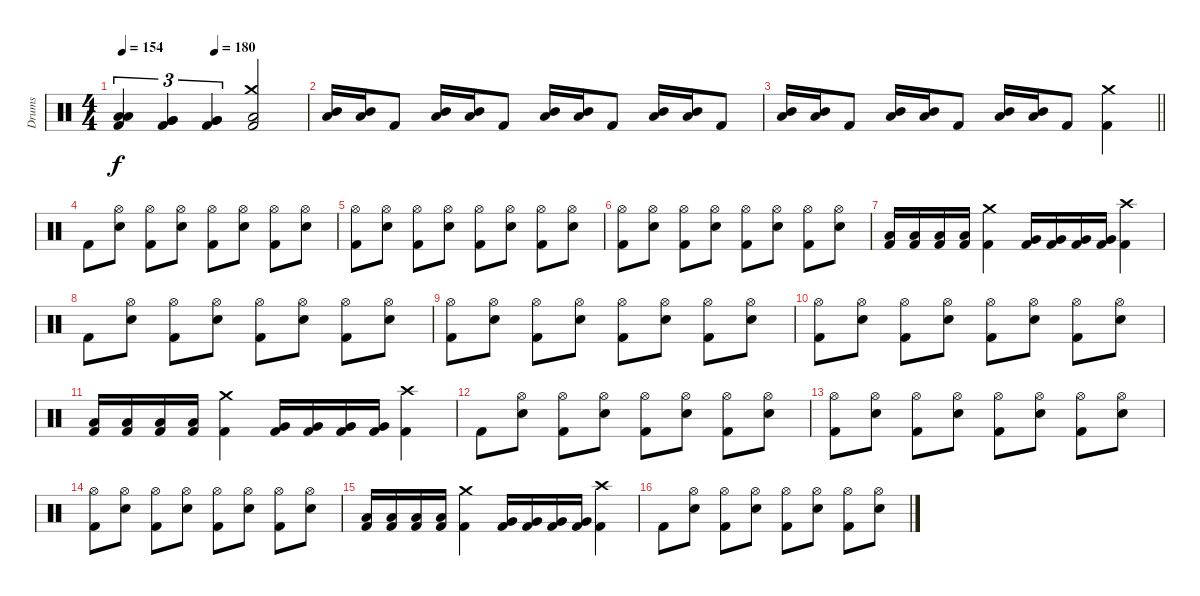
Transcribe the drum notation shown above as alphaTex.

\track ("Drums" "Drums") {instrument percussion}
\staff {score}
\articulation defaults
\ts (4 4)
\tempo 154
\tempo (190 0.5)
\tempo (180 0.5)
\clef neutral
\ks c
("Low Tom (hit)" "Low Tom (hit)" "Kick (hit) 2").4{tu (3 2) dy f} ("Very Low Tom (hit)" "Very Low Tom (hit)" "Kick (hit) 2").4{tu (3 2)} ("Very Low Tom (hit)" "Very Low Tom (hit)" "Kick (hit) 2").4{tu (3 2)} ("Crash medium (hit)" "Low Floor Tom (hit)" "Kick (hit) 2").2 |
("Low Tom (hit)" "Mid Tom (hit)").16 ("Low Tom (hit)" "Mid Tom (hit)").16 "Kick (hit) 2".8 ("Low Tom (hit)" "Mid Tom (hit)").16 ("Low Tom (hit)" "Mid Tom (hit)").16 "Kick (hit) 2".8 ("Low Tom (hit)" "Mid Tom (hit)").16 ("Low Tom (hit)" "Mid Tom (hit)").16 "Kick (hit) 2".8 ("Low Tom (hit)" "Mid Tom (hit)").16 ("Low Tom (hit)" "Mid Tom (hit)").16 "Kick (hit) 2".8 |
\barLineRight lightlight
("Low Tom (hit)" "Mid Tom (hit)").16 ("Low Tom (hit)" "Mid Tom (hit)").16 "Kick (hit) 2".8 ("Low Tom (hit)" "Mid Tom (hit)").16 ("Low Tom (hit)" "Mid Tom (hit)").16 "Kick (hit) 2".8 ("Low Tom (hit)" "Mid Tom (hit)").16 ("Low Tom (hit)" "Mid Tom (hit)").16 "Kick (hit) 2".8 ("Crash medium (hit)" "Kick (hit) 2").4 |
"Kick (hit) 2".8 ("Hi-Hat (open)" "Snare (hit) 2").8 ("Hi-Hat (open)" "Kick (hit) 2").8 ("Hi-Hat (open)" "Snare (hit) 2").8 ("Hi-Hat (open)" "Kick (hit) 2").8 ("Hi-Hat (open)" "Snare (hit) 2").8 ("Hi-Hat (open)" "Kick (hit) 2").8 ("Hi-Hat (open)" "Snare (hit) 2").8 |
("Hi-Hat (open)" "Kick (hit) 2").8 ("Hi-Hat (open)" "Snare (hit) 2").8 ("Hi-Hat (open)" "Kick (hit) 2").8 ("Hi-Hat (open)" "Snare (hit) 2").8 ("Hi-Hat (open)" "Kick (hit) 2").8 ("Hi-Hat (open)" "Snare (hit) 2").8 ("Hi-Hat (open)" "Kick (hit) 2").8 ("Hi-Hat (open)" "Snare (hit) 2").8 |
("Hi-Hat (open)" "Kick (hit) 2").8 ("Hi-Hat (open)" "Snare (hit) 2").8 ("Hi-Hat (open)" "Kick (hit) 2").8 ("Hi-Hat (open)" "Snare (hit) 2").8 ("Hi-Hat (open)" "Kick (hit) 2").8 ("Hi-Hat (open)" "Snare (hit) 2").8 ("Hi-Hat (open)" "Kick (hit) 2").8 ("Hi-Hat (open)" "Snare (hit) 2").8 |
("Low Tom (hit)" "Kick (hit) 2").16 ("Low Tom (hit)" "Kick (hit) 2").16 ("Low Tom (hit)" "Kick (hit) 2").16 ("Low Tom (hit)" "Kick (hit) 2").16 ("Crash medium (hit)" "Kick (hit) 2").4 ("Very Low Tom (hit)" "Kick (hit) 2").16 ("Very Low Tom (hit)" "Kick (hit) 2").16 ("Very Low Tom (hit)" "Kick (hit) 2").16 ("Very Low Tom (hit)" "Kick (hit) 2").16 ("Crash high (hit)" "Kick (hit) 2").4 |
"Kick (hit) 2".8 ("Hi-Hat (open)" "Snare (hit) 2").8 ("Hi-Hat (open)" "Kick (hit) 2").8 ("Hi-Hat (open)" "Snare (hit) 2").8 ("Hi-Hat (open)" "Kick (hit) 2").8 ("Hi-Hat (open)" "Snare (hit) 2").8 ("Hi-Hat (open)" "Kick (hit) 2").8 ("Hi-Hat (open)" "Snare (hit) 2").8 |
("Hi-Hat (open)" "Kick (hit) 2").8 ("Hi-Hat (open)" "Snare (hit) 2").8 ("Hi-Hat (open)" "Kick (hit) 2").8 ("Hi-Hat (open)" "Snare (hit) 2").8 ("Hi-Hat (open)" "Kick (hit) 2").8 ("Hi-Hat (open)" "Snare (hit) 2").8 ("Hi-Hat (open)" "Kick (hit) 2").8 ("Hi-Hat (open)" "Snare (hit) 2").8 |
("Hi-Hat (open)" "Kick (hit) 2").8 ("Hi-Hat (open)" "Snare (hit) 2").8 ("Hi-Hat (open)" "Kick (hit) 2").8 ("Hi-Hat (open)" "Snare (hit) 2").8 ("Hi-Hat (open)" "Kick (hit) 2").8 ("Hi-Hat (open)" "Snare (hit) 2").8 ("Hi-Hat (open)" "Kick (hit) 2").8 ("Hi-Hat (open)" "Snare (hit) 2").8 |
("Low Tom (hit)" "Kick (hit) 2").16 ("Low Tom (hit)" "Kick (hit) 2").16 ("Low Tom (hit)" "Kick (hit) 2").16 ("Low Tom (hit)" "Kick (hit) 2").16 ("Crash medium (hit)" "Kick (hit) 2").4 ("Very Low Tom (hit)" "Kick (hit) 2").16 ("Very Low Tom (hit)" "Kick (hit) 2").16 ("Very Low Tom (hit)" "Kick (hit) 2").16 ("Very Low Tom (hit)" "Kick (hit) 2").16 ("Crash high (hit)" "Kick (hit) 2").4 |
"Kick (hit) 2".8 ("Hi-Hat (open)" "Snare (hit) 2").8 ("Hi-Hat (open)" "Kick (hit) 2").8 ("Hi-Hat (open)" "Snare (hit) 2").8 ("Hi-Hat (open)" "Kick (hit) 2").8 ("Hi-Hat (open)" "Snare (hit) 2").8 ("Hi-Hat (open)" "Kick (hit) 2").8 ("Hi-Hat (open)" "Snare (hit) 2").8 |
("Hi-Hat (open)" "Kick (hit) 2").8 ("Hi-Hat (open)" "Snare (hit) 2").8 ("Hi-Hat (open)" "Kick (hit) 2").8 ("Hi-Hat (open)" "Snare (hit) 2").8 ("Hi-Hat (open)" "Kick (hit) 2").8 ("Hi-Hat (open)" "Snare (hit) 2").8 ("Hi-Hat (open)" "Kick (hit) 2").8 ("Hi-Hat (open)" "Snare (hit) 2").8 |
("Hi-Hat (open)" "Kick (hit) 2").8 ("Hi-Hat (open)" "Snare (hit) 2").8 ("Hi-Hat (open)" "Kick (hit) 2").8 ("Hi-Hat (open)" "Snare (hit) 2").8 ("Hi-Hat (open)" "Kick (hit) 2").8 ("Hi-Hat (open)" "Snare (hit) 2").8 ("Hi-Hat (open)" "Kick (hit) 2").8 ("Hi-Hat (open)" "Snare (hit) 2").8 |
("Low Tom (hit)" "Kick (hit) 2").16 ("Low Tom (hit)" "Kick (hit) 2").16 ("Low Tom (hit)" "Kick (hit) 2").16 ("Low Tom (hit)" "Kick (hit) 2").16 ("Crash medium (hit)" "Kick (hit) 2").4 ("Very Low Tom (hit)" "Kick (hit) 2").16 ("Very Low Tom (hit)" "Kick (hit) 2").16 ("Very Low Tom (hit)" "Kick (hit) 2").16 ("Very Low Tom (hit)" "Kick (hit) 2").16 ("Crash high (hit)" "Kick (hit) 2").4 |
"Kick (hit) 2".8 ("Hi-Hat (open)" "Snare (hit) 2").8 ("Hi-Hat (open)" "Kick (hit) 2").8 ("Hi-Hat (open)" "Snare (hit) 2").8 ("Hi-Hat (open)" "Kick (hit) 2").8 ("Hi-Hat (open)" "Snare (hit) 2").8 ("Hi-Hat (open)" "Kick (hit) 2").8 ("Hi-Hat (open)" "Snare (hit) 2").8
